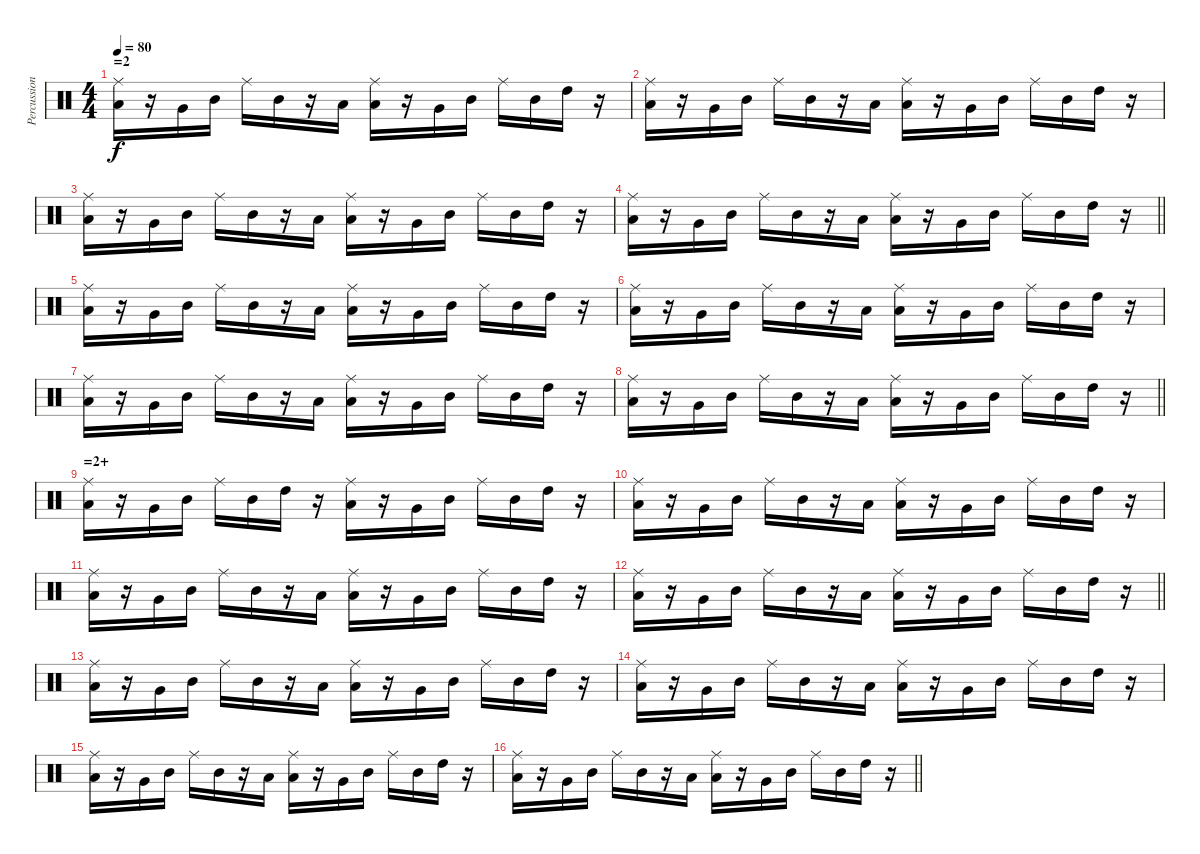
\track ("Percussion" "Percussion") {instrument percussion}
\staff {score}
\articulation defaults
\ts (4 4)
\section ("" "=2")
\tempo 80
\clef neutral
\ks c
("Low Floor Tom (hit)" "Ride (middle)").16{dy f} r.16 "Very Low Tom (hit)".16 "Mid Tom (hit)".16 "Ride (middle)".16 "Mid Tom (hit)".16 r.16 "Low Tom (hit)".16 ("Low Floor Tom (hit)" "Ride (middle)").16 r.16 "Very Low Tom (hit)".16 "Mid Tom (hit)".16 "Ride (middle)".16 "Mid Tom (hit)".16 "High Tom (hit)".16 r.16 |
("Low Floor Tom (hit)" "Ride (middle)").16 r.16 "Very Low Tom (hit)".16 "Mid Tom (hit)".16 "Ride (middle)".16 "Mid Tom (hit)".16 r.16 "Low Tom (hit)".16 ("Low Floor Tom (hit)" "Ride (middle)").16 r.16 "Very Low Tom (hit)".16 "Mid Tom (hit)".16 "Ride (middle)".16 "Mid Tom (hit)".16 "High Tom (hit)".16 r.16 |
("Low Floor Tom (hit)" "Ride (middle)").16 r.16 "Very Low Tom (hit)".16 "Mid Tom (hit)".16 "Ride (middle)".16 "Mid Tom (hit)".16 r.16 "Low Tom (hit)".16 ("Low Floor Tom (hit)" "Ride (middle)").16 r.16 "Very Low Tom (hit)".16 "Mid Tom (hit)".16 "Ride (middle)".16 "Mid Tom (hit)".16 "High Tom (hit)".16 r.16 |
\barLineRight lightlight
("Low Floor Tom (hit)" "Ride (middle)").16 r.16 "Very Low Tom (hit)".16 "Mid Tom (hit)".16 "Ride (middle)".16 "Mid Tom (hit)".16 r.16 "Low Tom (hit)".16 ("Low Floor Tom (hit)" "Ride (middle)").16 r.16 "Very Low Tom (hit)".16 "Mid Tom (hit)".16 "Ride (middle)".16 "Mid Tom (hit)".16 "High Tom (hit)".16 r.16 |
("Low Floor Tom (hit)" "Ride (middle)").16 r.16 "Very Low Tom (hit)".16 "Mid Tom (hit)".16 "Ride (middle)".16 "Mid Tom (hit)".16 r.16 "Low Tom (hit)".16 ("Low Floor Tom (hit)" "Ride (middle)").16 r.16 "Very Low Tom (hit)".16 "Mid Tom (hit)".16 "Ride (middle)".16 "Mid Tom (hit)".16 "High Tom (hit)".16 r.16 |
("Low Floor Tom (hit)" "Ride (middle)").16 r.16 "Very Low Tom (hit)".16 "Mid Tom (hit)".16 "Ride (middle)".16 "Mid Tom (hit)".16 r.16 "Low Tom (hit)".16 ("Low Floor Tom (hit)" "Ride (middle)").16 r.16 "Very Low Tom (hit)".16 "Mid Tom (hit)".16 "Ride (middle)".16 "Mid Tom (hit)".16 "High Tom (hit)".16 r.16 |
("Low Floor Tom (hit)" "Ride (middle)").16 r.16 "Very Low Tom (hit)".16 "Mid Tom (hit)".16 "Ride (middle)".16 "Mid Tom (hit)".16 r.16 "Low Tom (hit)".16 ("Low Floor Tom (hit)" "Ride (middle)").16 r.16 "Very Low Tom (hit)".16 "Mid Tom (hit)".16 "Ride (middle)".16 "Mid Tom (hit)".16 "High Tom (hit)".16 r.16 |
\barLineRight lightlight
("Low Floor Tom (hit)" "Ride (middle)").16 r.16 "Very Low Tom (hit)".16 "Mid Tom (hit)".16 "Ride (middle)".16 "Mid Tom (hit)".16 r.16 "Low Tom (hit)".16 ("Low Floor Tom (hit)" "Ride (middle)").16 r.16 "Very Low Tom (hit)".16 "Mid Tom (hit)".16 "Ride (middle)".16 "Mid Tom (hit)".16 "High Tom (hit)".16 r.16 |
\section ("" "=2+")
("Low Floor Tom (hit)" "Ride (middle)").16 r.16 "Very Low Tom (hit)".16 "Mid Tom (hit)".16 "Ride (middle)".16 "Mid Tom (hit)".16 "High Tom (hit)".16 r.16 ("Low Floor Tom (hit)" "Ride (middle)").16 r.16 "Very Low Tom (hit)".16 "Mid Tom (hit)".16 "Ride (middle)".16 "Mid Tom (hit)".16 "High Tom (hit)".16 r.16 |
("Low Floor Tom (hit)" "Ride (middle)").16 r.16 "Very Low Tom (hit)".16 "Mid Tom (hit)".16 "Ride (middle)".16 "Mid Tom (hit)".16 r.16 "Low Tom (hit)".16 ("Low Floor Tom (hit)" "Ride (middle)").16 r.16 "Very Low Tom (hit)".16 "Mid Tom (hit)".16 "Ride (middle)".16 "Mid Tom (hit)".16 "High Tom (hit)".16 r.16 |
("Low Floor Tom (hit)" "Ride (middle)").16 r.16 "Very Low Tom (hit)".16 "Mid Tom (hit)".16 "Ride (middle)".16 "Mid Tom (hit)".16 r.16 "Low Tom (hit)".16 ("Low Floor Tom (hit)" "Ride (middle)").16 r.16 "Very Low Tom (hit)".16 "Mid Tom (hit)".16 "Ride (middle)".16 "Mid Tom (hit)".16 "High Tom (hit)".16 r.16 |
\barLineRight lightlight
("Low Floor Tom (hit)" "Ride (middle)").16 r.16 "Very Low Tom (hit)".16 "Mid Tom (hit)".16 "Ride (middle)".16 "Mid Tom (hit)".16 r.16 "Low Tom (hit)".16 ("Low Floor Tom (hit)" "Ride (middle)").16 r.16 "Very Low Tom (hit)".16 "Mid Tom (hit)".16 "Ride (middle)".16 "Mid Tom (hit)".16 "High Tom (hit)".16 r.16 |
("Low Floor Tom (hit)" "Ride (middle)").16 r.16 "Very Low Tom (hit)".16 "Mid Tom (hit)".16 "Ride (middle)".16 "Mid Tom (hit)".16 r.16 "Low Tom (hit)".16 ("Low Floor Tom (hit)" "Ride (middle)").16 r.16 "Very Low Tom (hit)".16 "Mid Tom (hit)".16 "Ride (middle)".16 "Mid Tom (hit)".16 "High Tom (hit)".16 r.16 |
("Low Floor Tom (hit)" "Ride (middle)").16 r.16 "Very Low Tom (hit)".16 "Mid Tom (hit)".16 "Ride (middle)".16 "Mid Tom (hit)".16 r.16 "Low Tom (hit)".16 ("Low Floor Tom (hit)" "Ride (middle)").16 r.16 "Very Low Tom (hit)".16 "Mid Tom (hit)".16 "Ride (middle)".16 "Mid Tom (hit)".16 "High Tom (hit)".16 r.16 |
("Low Floor Tom (hit)" "Ride (middle)").16 r.16 "Very Low Tom (hit)".16 "Mid Tom (hit)".16 "Ride (middle)".16 "Mid Tom (hit)".16 r.16 "Low Tom (hit)".16 ("Low Floor Tom (hit)" "Ride (middle)").16 r.16 "Very Low Tom (hit)".16 "Mid Tom (hit)".16 "Ride (middle)".16 "Mid Tom (hit)".16 "High Tom (hit)".16 r.16 |
\barLineRight lightlight
("Low Floor Tom (hit)" "Ride (middle)").16 r.16 "Very Low Tom (hit)".16 "Mid Tom (hit)".16 "Ride (middle)".16 "Mid Tom (hit)".16 r.16 "Low Tom (hit)".16 ("Low Floor Tom (hit)" "Ride (middle)").16 r.16 "Very Low Tom (hit)".16 "Mid Tom (hit)".16 "Ride (middle)".16 "Mid Tom (hit)".16 "High Tom (hit)".16 r.16
